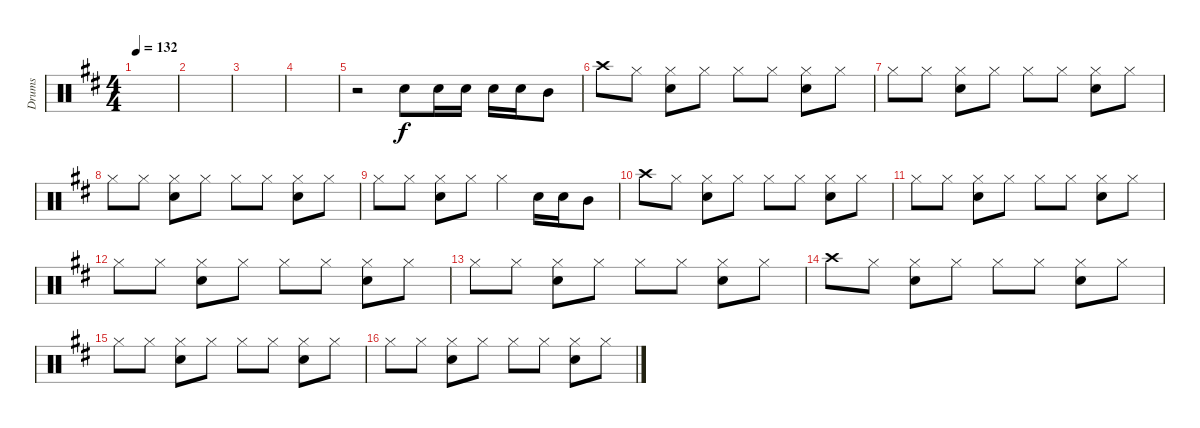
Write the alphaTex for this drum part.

\track ("Drums" "Drums") {instrument percussion}
\staff {score}
\articulation defaults
\ts (4 4)
\tempo 132
\clef neutral
\ks d
|
|
|
|
r.2 "Snare (hit) 2".8 "Snare (hit) 2".16 "Snare (hit) 2".16 "Snare (hit) 2".16 "Snare (hit) 2".16 "Mid Tom (hit)".8 |
"Crash high (hit)".8 "Hi-Hat (closed)".8 ("Hi-Hat (closed)" "Snare (hit) 2").8 "Hi-Hat (closed)".8 "Hi-Hat (closed)".8 "Hi-Hat (closed)".8 ("Hi-Hat (closed)" "Snare (hit) 2").8 "Hi-Hat (closed)".8 |
"Hi-Hat (closed)".8 "Hi-Hat (closed)".8 ("Hi-Hat (closed)" "Snare (hit) 2").8 "Hi-Hat (closed)".8 "Hi-Hat (closed)".8 "Hi-Hat (closed)".8 ("Hi-Hat (closed)" "Snare (hit) 2").8 "Hi-Hat (closed)".8 |
"Hi-Hat (closed)".8 "Hi-Hat (closed)".8 ("Hi-Hat (closed)" "Snare (hit) 2").8 "Hi-Hat (closed)".8 "Hi-Hat (closed)".8 "Hi-Hat (closed)".8 ("Hi-Hat (closed)" "Snare (hit) 2").8 "Hi-Hat (closed)".8 |
"Hi-Hat (closed)".8 "Hi-Hat (closed)".8 ("Hi-Hat (closed)" "Snare (hit) 2").8 "Hi-Hat (closed)".8 "Hi-Hat (closed)".4 "Snare (hit) 2".16 "Snare (hit) 2".16 "Mid Tom (hit)".8 |
"Crash high (hit)".8 "Hi-Hat (closed)".8 ("Hi-Hat (closed)" "Snare (hit) 2").8 "Hi-Hat (closed)".8 "Hi-Hat (closed)".8 "Hi-Hat (closed)".8 ("Hi-Hat (closed)" "Snare (hit) 2").8 "Hi-Hat (closed)".8 |
"Hi-Hat (closed)".8 "Hi-Hat (closed)".8 ("Hi-Hat (closed)" "Snare (hit) 2").8 "Hi-Hat (closed)".8 "Hi-Hat (closed)".8 "Hi-Hat (closed)".8 ("Hi-Hat (closed)" "Snare (hit) 2").8 "Hi-Hat (closed)".8 |
"Hi-Hat (closed)".8 "Hi-Hat (closed)".8 ("Hi-Hat (closed)" "Snare (hit) 2").8 "Hi-Hat (closed)".8 "Hi-Hat (closed)".8 "Hi-Hat (closed)".8 ("Hi-Hat (closed)" "Snare (hit) 2").8 "Hi-Hat (closed)".8 |
"Hi-Hat (closed)".8 "Hi-Hat (closed)".8 ("Hi-Hat (closed)" "Snare (hit) 2").8 "Hi-Hat (closed)".8 "Hi-Hat (closed)".8 "Hi-Hat (closed)".8 ("Hi-Hat (closed)" "Snare (hit) 2").8 "Hi-Hat (closed)".8 |
"Crash high (hit)".8 "Hi-Hat (closed)".8 ("Hi-Hat (closed)" "Snare (hit) 2").8 "Hi-Hat (closed)".8 "Hi-Hat (closed)".8 "Hi-Hat (closed)".8 ("Hi-Hat (closed)" "Snare (hit) 2").8 "Hi-Hat (closed)".8 |
"Hi-Hat (closed)".8 "Hi-Hat (closed)".8 ("Hi-Hat (closed)" "Snare (hit) 2").8 "Hi-Hat (closed)".8 "Hi-Hat (closed)".8 "Hi-Hat (closed)".8 ("Hi-Hat (closed)" "Snare (hit) 2").8 "Hi-Hat (closed)".8 |
"Hi-Hat (closed)".8 "Hi-Hat (closed)".8 ("Hi-Hat (closed)" "Snare (hit) 2").8 "Hi-Hat (closed)".8 "Hi-Hat (closed)".8 "Hi-Hat (closed)".8 ("Hi-Hat (closed)" "Snare (hit) 2").8 "Hi-Hat (closed)".8
